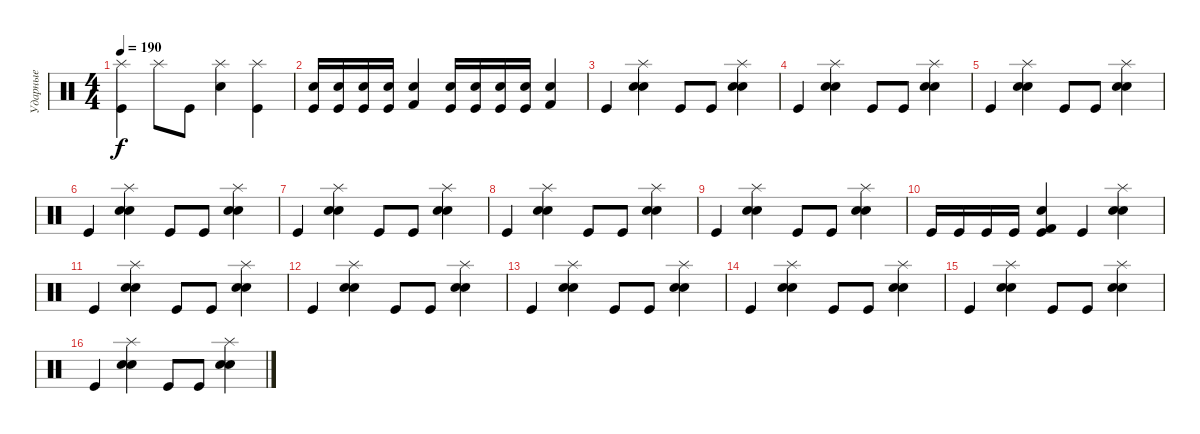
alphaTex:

\track ("Ударные" "Ударные") {instrument percussion}
\staff {score}
\articulation defaults
\ts (4 4)
\tempo 190
\clef neutral
\ks c
("Splash (hit)" "Kick (hit)").4{dy f} "Splash (hit)".8 "Kick (hit)".8 ("Splash (hit)" "Electric Snare (hit)").4 ("Splash (hit)" "Kick (hit)").4 |
("Electric Snare (hit)" "Kick (hit)").16 ("Electric Snare (hit)" "Kick (hit)").16 ("Electric Snare (hit)" "Kick (hit)").16 ("Electric Snare (hit)" "Kick (hit)").16 ("Electric Snare (hit)" "Kick (hit) 2").4 ("Electric Snare (hit)" "Kick (hit)").16 ("Electric Snare (hit)" "Kick (hit)").16 ("Electric Snare (hit)" "Kick (hit)").16 ("Electric Snare (hit)" "Kick (hit)").16 ("Electric Snare (hit)" "Kick (hit) 2").4 |
"Kick (hit)".4 ("Splash (hit)" "Snare (hit) 2" "Electric Snare (hit)").4 "Kick (hit)".8 "Kick (hit)".8 ("Splash (hit)" "Snare (hit) 2" "Electric Snare (hit)").4 |
"Kick (hit)".4 ("Splash (hit)" "Snare (hit) 2" "Electric Snare (hit)").4 "Kick (hit)".8 "Kick (hit)".8 ("Splash (hit)" "Snare (hit) 2" "Electric Snare (hit)").4 |
"Kick (hit)".4 ("Splash (hit)" "Snare (hit) 2" "Electric Snare (hit)").4 "Kick (hit)".8 "Kick (hit)".8 ("Splash (hit)" "Snare (hit) 2" "Electric Snare (hit)").4 |
"Kick (hit)".4 ("Splash (hit)" "Snare (hit) 2" "Electric Snare (hit)").4 "Kick (hit)".8 "Kick (hit)".8 ("Splash (hit)" "Snare (hit) 2" "Electric Snare (hit)").4 |
"Kick (hit)".4 ("Splash (hit)" "Snare (hit) 2" "Electric Snare (hit)").4 "Kick (hit)".8 "Kick (hit)".8 ("Splash (hit)" "Snare (hit) 2" "Electric Snare (hit)").4 |
"Kick (hit)".4 ("Splash (hit)" "Snare (hit) 2" "Electric Snare (hit)").4 "Kick (hit)".8 "Kick (hit)".8 ("Splash (hit)" "Snare (hit) 2" "Electric Snare (hit)").4 |
"Kick (hit)".4 ("Splash (hit)" "Snare (hit) 2" "Electric Snare (hit)").4 "Kick (hit)".8 "Kick (hit)".8 ("Splash (hit)" "Snare (hit) 2" "Electric Snare (hit)").4 |
"Kick (hit)".16 "Kick (hit)".16 "Kick (hit)".16 "Kick (hit)".16 ("Electric Snare (hit)" "Kick (hit)" "Kick (hit) 2").4 "Kick (hit)".4 ("Splash (hit)" "Snare (hit) 2" "Electric Snare (hit)").4 |
"Kick (hit)".4 ("Splash (hit)" "Snare (hit) 2" "Electric Snare (hit)").4 "Kick (hit)".8 "Kick (hit)".8 ("Splash (hit)" "Snare (hit) 2" "Electric Snare (hit)").4 |
"Kick (hit)".4 ("Splash (hit)" "Snare (hit) 2" "Electric Snare (hit)").4 "Kick (hit)".8 "Kick (hit)".8 ("Splash (hit)" "Snare (hit) 2" "Electric Snare (hit)").4 |
"Kick (hit)".4 ("Splash (hit)" "Snare (hit) 2" "Electric Snare (hit)").4 "Kick (hit)".8 "Kick (hit)".8 ("Splash (hit)" "Snare (hit) 2" "Electric Snare (hit)").4 |
"Kick (hit)".4 ("Splash (hit)" "Snare (hit) 2" "Electric Snare (hit)").4 "Kick (hit)".8 "Kick (hit)".8 ("Splash (hit)" "Snare (hit) 2" "Electric Snare (hit)").4 |
"Kick (hit)".4 ("Splash (hit)" "Snare (hit) 2" "Electric Snare (hit)").4 "Kick (hit)".8 "Kick (hit)".8 ("Splash (hit)" "Snare (hit) 2" "Electric Snare (hit)").4 |
"Kick (hit)".4 ("Splash (hit)" "Snare (hit) 2" "Electric Snare (hit)").4 "Kick (hit)".8 "Kick (hit)".8 ("Splash (hit)" "Snare (hit) 2" "Electric Snare (hit)").4
